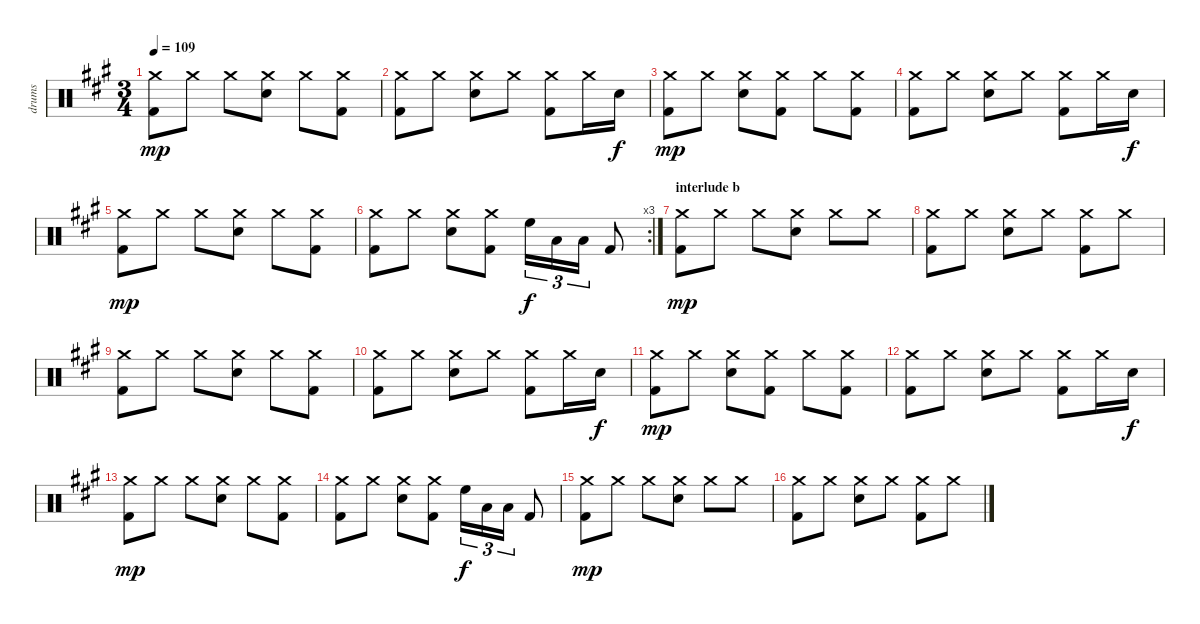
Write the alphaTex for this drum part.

\track ("drums" "drums") {instrument percussion}
\staff {score}
\articulation defaults
\ts (3 4)
\tempo 109
\clef neutral
\ks a
("Crash medium (hit)" "Kick (hit) 2").8{dy mp} "Crash medium (hit)".8 "Crash medium (hit)".8 ("Crash medium (hit)" "Snare (hit) 2").8 "Crash medium (hit)".8 ("Crash medium (hit)" "Kick (hit) 2").8 |
("Crash medium (hit)" "Kick (hit) 2").8 "Crash medium (hit)".8 ("Crash medium (hit)" "Snare (hit) 2").8 "Crash medium (hit)".8 ("Crash medium (hit)" "Kick (hit) 2").8 "Crash medium (hit)".16 "Snare (hit) 2".16{dy f} |
("Crash medium (hit)" "Kick (hit) 2").8{dy mp} "Crash medium (hit)".8 ("Crash medium (hit)" "Snare (hit) 2").8 ("Crash medium (hit)" "Kick (hit) 2").8 "Crash medium (hit)".8 ("Crash medium (hit)" "Kick (hit) 2").8 |
("Crash medium (hit)" "Kick (hit) 2").8 "Crash medium (hit)".8 ("Crash medium (hit)" "Snare (hit) 2").8 "Crash medium (hit)".8 ("Crash medium (hit)" "Kick (hit) 2").8 "Crash medium (hit)".16 "Snare (hit) 2".16{dy f} |
("Crash medium (hit)" "Kick (hit) 2").8{dy mp} "Crash medium (hit)".8 "Crash medium (hit)".8 ("Crash medium (hit)" "Snare (hit) 2").8 "Crash medium (hit)".8 ("Crash medium (hit)" "Kick (hit) 2").8 |
\rc 3
("Crash medium (hit)" "Kick (hit) 2").8 "Crash medium (hit)".8 ("Crash medium (hit)" "Snare (hit) 2").8 ("Crash medium (hit)" "Kick (hit) 2").8 "High Floor Tom (hit)".16{tu (3 2) dy f} "Low Tom (hit)".16{tu (3 2)} "Low Tom (hit)".16{tu (3 2)} "Kick (hit) 2".8 |
\section ("" "interlude b")
("Crash medium (hit)" "Kick (hit) 2").8{dy mp} "Crash medium (hit)".8 "Crash medium (hit)".8 ("Crash medium (hit)" "Snare (hit) 2").8 "Crash medium (hit)".8 "Crash medium (hit)".8 |
("Crash medium (hit)" "Kick (hit) 2").8 "Crash medium (hit)".8 ("Crash medium (hit)" "Snare (hit) 2").8 "Crash medium (hit)".8 ("Crash medium (hit)" "Kick (hit) 2").8 "Crash medium (hit)".8 |
("Crash medium (hit)" "Kick (hit) 2").8 "Crash medium (hit)".8 "Crash medium (hit)".8 ("Crash medium (hit)" "Snare (hit) 2").8 "Crash medium (hit)".8 ("Crash medium (hit)" "Kick (hit) 2").8 |
("Crash medium (hit)" "Kick (hit) 2").8 "Crash medium (hit)".8 ("Crash medium (hit)" "Snare (hit) 2").8 "Crash medium (hit)".8 ("Crash medium (hit)" "Kick (hit) 2").8 "Crash medium (hit)".16 "Snare (hit) 2".16{dy f} |
("Crash medium (hit)" "Kick (hit) 2").8{dy mp} "Crash medium (hit)".8 ("Crash medium (hit)" "Snare (hit) 2").8 ("Crash medium (hit)" "Kick (hit) 2").8 "Crash medium (hit)".8 ("Crash medium (hit)" "Kick (hit) 2").8 |
("Crash medium (hit)" "Kick (hit) 2").8 "Crash medium (hit)".8 ("Crash medium (hit)" "Snare (hit) 2").8 "Crash medium (hit)".8 ("Crash medium (hit)" "Kick (hit) 2").8 "Crash medium (hit)".16 "Snare (hit) 2".16{dy f} |
("Crash medium (hit)" "Kick (hit) 2").8{dy mp} "Crash medium (hit)".8 "Crash medium (hit)".8 ("Crash medium (hit)" "Snare (hit) 2").8 "Crash medium (hit)".8 ("Crash medium (hit)" "Kick (hit) 2").8 |
("Crash medium (hit)" "Kick (hit) 2").8 "Crash medium (hit)".8 ("Crash medium (hit)" "Snare (hit) 2").8 ("Crash medium (hit)" "Kick (hit) 2").8 "High Floor Tom (hit)".16{tu (3 2) dy f} "Low Tom (hit)".16{tu (3 2)} "Low Tom (hit)".16{tu (3 2)} "Kick (hit) 2".8 |
("Crash medium (hit)" "Kick (hit) 2").8{dy mp} "Crash medium (hit)".8 "Crash medium (hit)".8 ("Crash medium (hit)" "Snare (hit) 2").8 "Crash medium (hit)".8 "Crash medium (hit)".8 |
("Crash medium (hit)" "Kick (hit) 2").8 "Crash medium (hit)".8 ("Crash medium (hit)" "Snare (hit) 2").8 "Crash medium (hit)".8 ("Crash medium (hit)" "Kick (hit) 2").8 "Crash medium (hit)".8
